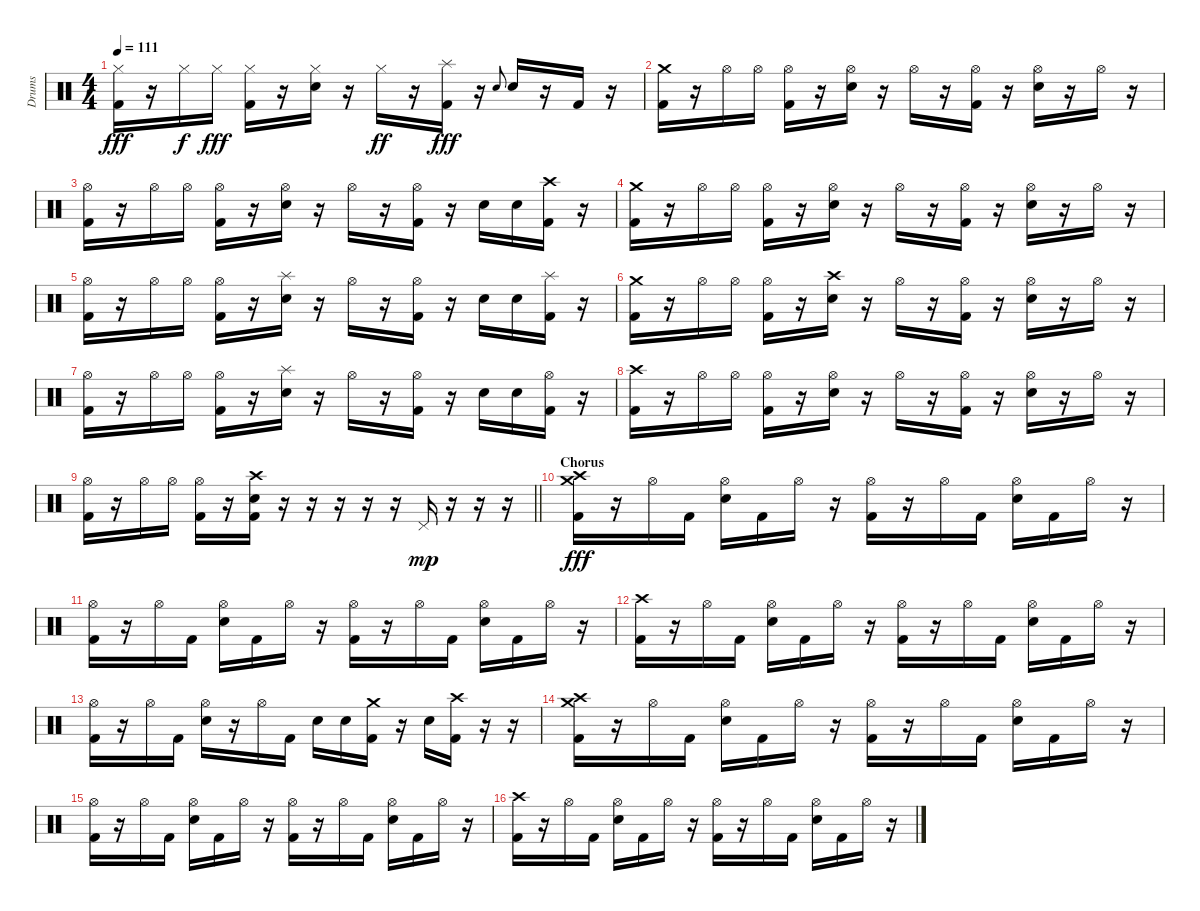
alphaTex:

\track ("Drums" "Drums") {instrument percussion}
\staff {score}
\articulation defaults
\ts (4 4)
\tempo 111
\clef neutral
\ks c
("Hi-Hat (closed)" "Kick (hit) 2").16{dy fff} r.16 "Hi-Hat (closed)".16{dy f} "Hi-Hat (closed)".16{dy fff} ("Hi-Hat (closed)" "Kick (hit) 2").16 r.16 ("Hi-Hat (closed)" "Electric Snare (hit)").16 r.16 "Hi-Hat (closed)".16{dy ff} r.16 ("Splash (hit)" "Kick (hit) 2").16{dy fff} r.16 "Electric Snare (hit)".8{gr onbeat} "Electric Snare (hit)".16 r.16 "Kick (hit) 2".16 r.16 |
("Crash medium (hit)" "Kick (hit) 2").16 r.16 "Hi-Hat (open)".16 "Hi-Hat (open)".16 ("Hi-Hat (open)" "Kick (hit) 2").16 r.16 ("Hi-Hat (open)" "Electric Snare (hit)").16 r.16 "Hi-Hat (open)".16 r.16 ("Hi-Hat (open)" "Kick (hit) 2").16 r.16 ("Hi-Hat (open)" "Electric Snare (hit)").16 r.16 "Hi-Hat (open)".16 r.16 |
("Hi-Hat (open)" "Kick (hit) 2").16 r.16 "Hi-Hat (open)".16 "Hi-Hat (open)".16 ("Hi-Hat (open)" "Kick (hit) 2").16 r.16 ("Hi-Hat (open)" "Electric Snare (hit)").16 r.16 "Hi-Hat (open)".16 r.16 ("Hi-Hat (open)" "Kick (hit) 2").16 r.16 "Electric Snare (hit)".16 "Electric Snare (hit)".16 ("Crash high (hit)" "Kick (hit) 2").16 r.16 |
("Crash medium (hit)" "Kick (hit) 2").16 r.16 "Hi-Hat (open)".16 "Hi-Hat (open)".16 ("Hi-Hat (open)" "Kick (hit) 2").16 r.16 ("Hi-Hat (open)" "Electric Snare (hit)").16 r.16 "Hi-Hat (open)".16 r.16 ("Hi-Hat (open)" "Kick (hit) 2").16 r.16 ("Hi-Hat (open)" "Electric Snare (hit)").16 r.16 "Hi-Hat (open)".16 r.16 |
("Hi-Hat (open)" "Kick (hit) 2").16 r.16 "Hi-Hat (open)".16 "Hi-Hat (open)".16 ("Hi-Hat (open)" "Kick (hit) 2").16 r.16 ("Splash (hit)" "Electric Snare (hit)").16 r.16 "Hi-Hat (open)".16 r.16 ("Hi-Hat (open)" "Kick (hit) 2").16 r.16 "Electric Snare (hit)".16 "Electric Snare (hit)".16 ("Splash (hit)" "Kick (hit) 2").16 r.16 |
("Crash medium (hit)" "Kick (hit) 2").16 r.16 "Hi-Hat (open)".16 "Hi-Hat (open)".16 ("Hi-Hat (open)" "Kick (hit) 2").16 r.16 ("Crash high (hit)" "Electric Snare (hit)").16 r.16 "Hi-Hat (open)".16 r.16 ("Hi-Hat (open)" "Kick (hit) 2").16 r.16 ("Hi-Hat (open)" "Electric Snare (hit)").16 r.16 "Hi-Hat (open)".16 r.16 |
("Hi-Hat (open)" "Kick (hit) 2").16 r.16 "Hi-Hat (open)".16 "Hi-Hat (open)".16 ("Hi-Hat (open)" "Kick (hit) 2").16 r.16 ("Splash (hit)" "Electric Snare (hit)").16 r.16 "Hi-Hat (open)".16 r.16 ("Hi-Hat (open)" "Kick (hit) 2").16 r.16 "Electric Snare (hit)".16 "Electric Snare (hit)".16 ("Hi-Hat (open)" "Kick (hit) 2").16 r.16 |
("Crash high (hit)" "Kick (hit) 2").16 r.16 "Hi-Hat (open)".16 "Hi-Hat (open)".16 ("Hi-Hat (open)" "Kick (hit) 2").16 r.16 ("Hi-Hat (open)" "Electric Snare (hit)").16 r.16 "Hi-Hat (open)".16 r.16 ("Hi-Hat (open)" "Kick (hit) 2").16 r.16 ("Hi-Hat (open)" "Electric Snare (hit)").16 r.16 "Hi-Hat (open)".16 r.16 |
\barLineRight lightlight
("Hi-Hat (open)" "Kick (hit) 2").16 r.16 "Hi-Hat (open)".16 "Hi-Hat (open)".16 ("Hi-Hat (open)" "Kick (hit) 2").16 r.16 ("Crash high (hit)" "Electric Snare (hit)" "Kick (hit) 2").16 r.16 r.16 r.16 r.16 r.16 "Pedal Hi-Hat (hit)".16{dy mp} r.16 r.16 r.16 |
\section ("" "Chorus")
("Crash medium (hit)" "Crash high (hit)" "Kick (hit) 2").16{dy fff} r.16 "Hi-Hat (open)".16 "Kick (hit) 2".16 ("Hi-Hat (open)" "Electric Snare (hit)").16 "Kick (hit) 2".16 "Hi-Hat (open)".16 r.16 ("Hi-Hat (open)" "Kick (hit) 2").16 r.16 "Hi-Hat (open)".16 "Kick (hit) 2".16 ("Hi-Hat (open)" "Electric Snare (hit)").16 "Kick (hit) 2".16 "Hi-Hat (open)".16 r.16 |
("Hi-Hat (open)" "Kick (hit) 2").16 r.16 "Hi-Hat (open)".16 "Kick (hit) 2".16 ("Hi-Hat (open)" "Electric Snare (hit)").16 "Kick (hit) 2".16 "Hi-Hat (open)".16 r.16 ("Hi-Hat (open)" "Kick (hit) 2").16 r.16 "Hi-Hat (open)".16 "Kick (hit) 2".16 ("Hi-Hat (open)" "Electric Snare (hit)").16 "Kick (hit) 2".16 "Hi-Hat (open)".16 r.16 |
("Crash high (hit)" "Kick (hit) 2").16 r.16 "Hi-Hat (open)".16 "Kick (hit) 2".16 ("Hi-Hat (open)" "Electric Snare (hit)").16 "Kick (hit) 2".16 "Hi-Hat (open)".16 r.16 ("Hi-Hat (open)" "Kick (hit) 2").16 r.16 "Hi-Hat (open)".16 "Kick (hit) 2".16 ("Hi-Hat (open)" "Electric Snare (hit)").16 "Kick (hit) 2".16 "Hi-Hat (open)".16 r.16 |
("Hi-Hat (open)" "Kick (hit) 2").16 r.16 "Hi-Hat (open)".16 "Kick (hit) 2".16 ("Hi-Hat (open)" "Electric Snare (hit)").16 r.16 "Hi-Hat (open)".16 "Kick (hit) 2".16 "Electric Snare (hit)".16 "Electric Snare (hit)".16 ("Crash medium (hit)" "Kick (hit) 2").16 r.16 "Electric Snare (hit)".16 ("Crash high (hit)" "Kick (hit) 2").16 r.16 r.16 |
("Crash medium (hit)" "Crash high (hit)" "Kick (hit) 2").16 r.16 "Hi-Hat (open)".16 "Kick (hit) 2".16 ("Hi-Hat (open)" "Electric Snare (hit)").16 "Kick (hit) 2".16 "Hi-Hat (open)".16 r.16 ("Hi-Hat (open)" "Kick (hit) 2").16 r.16 "Hi-Hat (open)".16 "Kick (hit) 2".16 ("Hi-Hat (open)" "Electric Snare (hit)").16 "Kick (hit) 2".16 "Hi-Hat (open)".16 r.16 |
("Hi-Hat (open)" "Kick (hit) 2").16 r.16 "Hi-Hat (open)".16 "Kick (hit) 2".16 ("Hi-Hat (open)" "Electric Snare (hit)").16 "Kick (hit) 2".16 "Hi-Hat (open)".16 r.16 ("Hi-Hat (open)" "Kick (hit) 2").16 r.16 "Hi-Hat (open)".16 "Kick (hit) 2".16 ("Hi-Hat (open)" "Electric Snare (hit)").16 "Kick (hit) 2".16 "Hi-Hat (open)".16 r.16 |
("Crash high (hit)" "Kick (hit) 2").16 r.16 "Hi-Hat (open)".16 "Kick (hit) 2".16 ("Hi-Hat (open)" "Electric Snare (hit)").16 "Kick (hit) 2".16 "Hi-Hat (open)".16 r.16 ("Hi-Hat (open)" "Kick (hit) 2").16 r.16 "Hi-Hat (open)".16 "Kick (hit) 2".16 ("Hi-Hat (open)" "Electric Snare (hit)").16 "Kick (hit) 2".16 "Hi-Hat (open)".16 r.16
